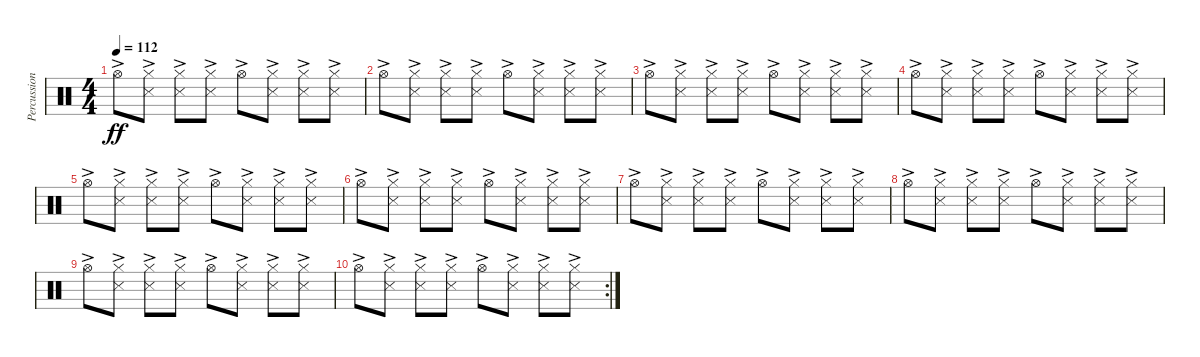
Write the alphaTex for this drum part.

\track ("Percussion" "Percussion") {instrument percussion}
\staff {score}
\articulation defaults
\ts (4 4)
\tempo 112
\clef neutral
\ks c "Hi-Hat (open)"{ac}.8{dy ff}
("Hi-Hat (closed)"{ac} "Snare (side stick) 3"{ac}).8 ("Hi-Hat (closed)"{ac} "Snare (side stick) 3"{ac}).8 ("Hi-Hat (closed)"{ac} "Snare (side stick) 3"{ac}).8 "Hi-Hat (open)"{ac}.8 ("Hi-Hat (closed)"{ac} "Snare (side stick) 3"{ac}).8 ("Hi-Hat (closed)"{ac} "Snare (side stick) 3"{ac}).8 ("Hi-Hat (closed)"{ac} "Snare (side stick) 3"{ac}).8 |
"Hi-Hat (open)"{ac}.8 ("Hi-Hat (closed)"{ac} "Snare (side stick) 3"{ac}).8 ("Hi-Hat (closed)"{ac} "Snare (side stick) 3"{ac}).8 ("Hi-Hat (closed)"{ac} "Snare (side stick) 3"{ac}).8 "Hi-Hat (open)"{ac}.8 ("Hi-Hat (closed)"{ac} "Snare (side stick) 3"{ac}).8 ("Hi-Hat (closed)"{ac} "Snare (side stick) 3"{ac}).8 ("Hi-Hat (closed)"{ac} "Snare (side stick) 3"{ac}).8 |
"Hi-Hat (open)"{ac}.8 ("Hi-Hat (closed)"{ac} "Snare (side stick) 3"{ac}).8 ("Hi-Hat (closed)"{ac} "Snare (side stick) 3"{ac}).8 ("Hi-Hat (closed)"{ac} "Snare (side stick) 3"{ac}).8 "Hi-Hat (open)"{ac}.8 ("Hi-Hat (closed)"{ac} "Snare (side stick) 3"{ac}).8 ("Hi-Hat (closed)"{ac} "Snare (side stick) 3"{ac}).8 ("Hi-Hat (closed)"{ac} "Snare (side stick) 3"{ac}).8 |
"Hi-Hat (open)"{ac}.8 ("Hi-Hat (closed)"{ac} "Snare (side stick) 3"{ac}).8 ("Hi-Hat (closed)"{ac} "Snare (side stick) 3"{ac}).8 ("Hi-Hat (closed)"{ac} "Snare (side stick) 3"{ac}).8 "Hi-Hat (open)"{ac}.8 ("Hi-Hat (closed)"{ac} "Snare (side stick) 3"{ac}).8 ("Hi-Hat (closed)"{ac} "Snare (side stick) 3"{ac}).8 ("Hi-Hat (closed)"{ac} "Snare (side stick) 3"{ac}).8 |
"Hi-Hat (open)"{ac}.8 ("Hi-Hat (closed)"{ac} "Snare (side stick) 3"{ac}).8 ("Hi-Hat (closed)"{ac} "Snare (side stick) 3"{ac}).8 ("Hi-Hat (closed)"{ac} "Snare (side stick) 3"{ac}).8 "Hi-Hat (open)"{ac}.8 ("Hi-Hat (closed)"{ac} "Snare (side stick) 3"{ac}).8 ("Hi-Hat (closed)"{ac} "Snare (side stick) 3"{ac}).8 ("Hi-Hat (closed)"{ac} "Snare (side stick) 3"{ac}).8 |
"Hi-Hat (open)"{ac}.8 ("Hi-Hat (closed)"{ac} "Snare (side stick) 3"{ac}).8 ("Hi-Hat (closed)"{ac} "Snare (side stick) 3"{ac}).8 ("Hi-Hat (closed)"{ac} "Snare (side stick) 3"{ac}).8 "Hi-Hat (open)"{ac}.8 ("Hi-Hat (closed)"{ac} "Snare (side stick) 3"{ac}).8 ("Hi-Hat (closed)"{ac} "Snare (side stick) 3"{ac}).8 ("Hi-Hat (closed)"{ac} "Snare (side stick) 3"{ac}).8 |
"Hi-Hat (open)"{ac}.8 ("Hi-Hat (closed)"{ac} "Snare (side stick) 3"{ac}).8 ("Hi-Hat (closed)"{ac} "Snare (side stick) 3"{ac}).8 ("Hi-Hat (closed)"{ac} "Snare (side stick) 3"{ac}).8 "Hi-Hat (open)"{ac}.8 ("Hi-Hat (closed)"{ac} "Snare (side stick) 3"{ac}).8 ("Hi-Hat (closed)"{ac} "Snare (side stick) 3"{ac}).8 ("Hi-Hat (closed)"{ac} "Snare (side stick) 3"{ac}).8 |
"Hi-Hat (open)"{ac}.8 ("Hi-Hat (closed)"{ac} "Snare (side stick) 3"{ac}).8 ("Hi-Hat (closed)"{ac} "Snare (side stick) 3"{ac}).8 ("Hi-Hat (closed)"{ac} "Snare (side stick) 3"{ac}).8 "Hi-Hat (open)"{ac}.8 ("Hi-Hat (closed)"{ac} "Snare (side stick) 3"{ac}).8 ("Hi-Hat (closed)"{ac} "Snare (side stick) 3"{ac}).8 ("Hi-Hat (closed)"{ac} "Snare (side stick) 3"{ac}).8 |
"Hi-Hat (open)"{ac}.8 ("Hi-Hat (closed)"{ac} "Snare (side stick) 3"{ac}).8 ("Hi-Hat (closed)"{ac} "Snare (side stick) 3"{ac}).8 ("Hi-Hat (closed)"{ac} "Snare (side stick) 3"{ac}).8 "Hi-Hat (open)"{ac}.8 ("Hi-Hat (closed)"{ac} "Snare (side stick) 3"{ac}).8 ("Hi-Hat (closed)"{ac} "Snare (side stick) 3"{ac}).8 ("Hi-Hat (closed)"{ac} "Snare (side stick) 3"{ac}).8 |
\rc 2 "Hi-Hat (open)"{ac}.8
("Hi-Hat (closed)"{ac} "Snare (side stick) 3"{ac}).8 ("Hi-Hat (closed)"{ac} "Snare (side stick) 3"{ac}).8 ("Hi-Hat (closed)"{ac} "Snare (side stick) 3"{ac}).8 "Hi-Hat (open)"{ac}.8 ("Hi-Hat (closed)"{ac} "Snare (side stick) 3"{ac}).8 ("Hi-Hat (closed)"{ac} "Snare (side stick) 3"{ac}).8 ("Hi-Hat (closed)"{ac} "Snare (side stick) 3"{ac}).8
